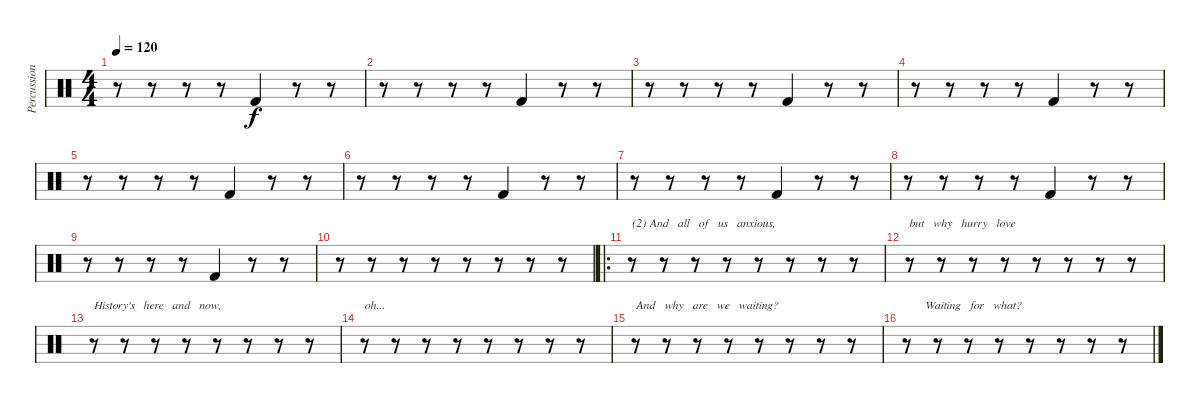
\track ("Percussion" "Percussion") {instrument percussion}
\staff {score}
\articulation defaults
\ts (4 4)
\tempo 120
\clef neutral
\ks c
r.8{dy f} r.8 r.8 r.8 "Kick (hit) 2".4 r.8 r.8 |
r.8 r.8 r.8 r.8 "Kick (hit) 2".4 r.8 r.8 |
r.8 r.8 r.8 r.8 "Kick (hit) 2".4 r.8 r.8 |
r.8 r.8 r.8 r.8 "Kick (hit) 2".4 r.8 r.8 |
r.8 r.8 r.8 r.8 "Kick (hit) 2".4 r.8 r.8 |
r.8 r.8 r.8 r.8 "Kick (hit) 2".4 r.8 r.8 |
r.8 r.8 r.8 r.8 "Kick (hit) 2".4 r.8 r.8 |
r.8 r.8 r.8 r.8 "Kick (hit) 2".4 r.8 r.8 |
r.8 r.8 r.8 r.8 "Kick (hit) 2".4 r.8 r.8 |
r.8 r.8 r.8 r.8 r.8 r.8 r.8 r.8 |
\ro
r.8{txt "(2) And   all   of   us   anxious,"} r.8 r.8 r.8 r.8 r.8 r.8 r.8 |
r.8{txt "but   why   hurry   love"} r.8 r.8 r.8 r.8 r.8 r.8 r.8 |
r.8{txt "History's   here   and   now,"} r.8 r.8 r.8 r.8 r.8 r.8 r.8 |
r.8{txt "oh..."} r.8 r.8 r.8 r.8 r.8 r.8 r.8 |
r.8{txt "And   why   are   we   waiting?"} r.8 r.8 r.8 r.8 r.8 r.8 r.8 |
r.8{txt "      Waiting   for   what?"} r.8 r.8 r.8 r.8 r.8 r.8 r.8
